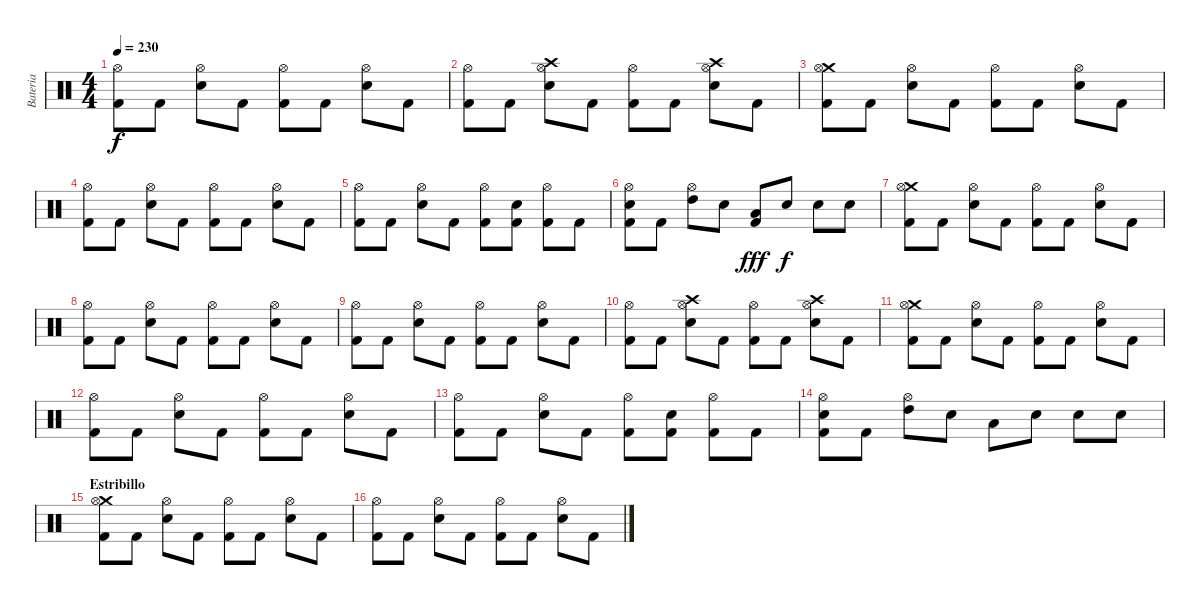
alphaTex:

\track ("Bateria" "Bateria") {instrument percussion}
\staff {score}
\articulation defaults
\ts (4 4)
\tempo 230
\clef neutral
\ks c
("Hi-Hat (open)" "Kick (hit) 2").8{dy f} "Kick (hit) 2".8 ("Hi-Hat (open)" "Snare (hit) 2").8 "Kick (hit) 2".8 ("Hi-Hat (open)" "Kick (hit) 2").8 "Kick (hit) 2".8 ("Hi-Hat (open)" "Snare (hit) 2").8 "Kick (hit) 2".8 |
("Hi-Hat (open)" "Kick (hit) 2").8 "Kick (hit) 2".8 ("Hi-Hat (open)" "Crash high (hit)" "Snare (hit) 2").8 "Kick (hit) 2".8 ("Hi-Hat (open)" "Kick (hit) 2").8 "Kick (hit) 2".8 ("Hi-Hat (open)" "Crash high (hit)" "Snare (hit) 2").8 "Kick (hit) 2".8 |
("Crash medium (hit)" "Hi-Hat (open)" "Kick (hit) 2").8 "Kick (hit) 2".8 ("Hi-Hat (open)" "Snare (hit) 2").8 "Kick (hit) 2".8 ("Hi-Hat (open)" "Kick (hit) 2").8 "Kick (hit) 2".8 ("Hi-Hat (open)" "Snare (hit) 2").8 "Kick (hit) 2".8 |
("Hi-Hat (open)" "Kick (hit) 2").8 "Kick (hit) 2".8 ("Hi-Hat (open)" "Snare (hit) 2").8 "Kick (hit) 2".8 ("Hi-Hat (open)" "Kick (hit) 2").8 "Kick (hit) 2".8 ("Hi-Hat (open)" "Snare (hit) 2").8 "Kick (hit) 2".8 |
("Hi-Hat (open)" "Kick (hit) 2").8 "Kick (hit) 2".8 ("Hi-Hat (open)" "Snare (hit) 2").8 "Kick (hit) 2".8 ("Hi-Hat (open)" "Kick (hit) 2").8 ("Snare (hit) 2" "Kick (hit) 2").8 ("Hi-Hat (open)" "Kick (hit) 2").8 "Kick (hit) 2".8 |
("Snare (hit) 2" "Hi-Hat (open)" "Kick (hit) 2").8 "Kick (hit) 2".8 ("Hi-Hat (open)" "High Tom (hit)").8 "Snare (hit) 2".8 ("Kick (hit) 2" "Low Tom (hit)").8{dy fff} "Snare (hit) 2".8{dy f} "Snare (hit) 2".8 "Snare (hit) 2".8 |
("Crash medium (hit)" "Hi-Hat (open)" "Kick (hit) 2").8 "Kick (hit) 2".8 ("Hi-Hat (open)" "Snare (hit) 2").8 "Kick (hit) 2".8 ("Hi-Hat (open)" "Kick (hit) 2").8 "Kick (hit) 2".8 ("Hi-Hat (open)" "Snare (hit) 2").8 "Kick (hit) 2".8 |
("Hi-Hat (open)" "Kick (hit) 2").8 "Kick (hit) 2".8 ("Hi-Hat (open)" "Snare (hit) 2").8 "Kick (hit) 2".8 ("Hi-Hat (open)" "Kick (hit) 2").8 "Kick (hit) 2".8 ("Hi-Hat (open)" "Snare (hit) 2").8 "Kick (hit) 2".8 |
("Hi-Hat (open)" "Kick (hit) 2").8 "Kick (hit) 2".8 ("Hi-Hat (open)" "Snare (hit) 2").8 "Kick (hit) 2".8 ("Hi-Hat (open)" "Kick (hit) 2").8 "Kick (hit) 2".8 ("Hi-Hat (open)" "Snare (hit) 2").8 "Kick (hit) 2".8 |
("Hi-Hat (open)" "Kick (hit) 2").8 "Kick (hit) 2".8 ("Hi-Hat (open)" "Crash high (hit)" "Snare (hit) 2").8 "Kick (hit) 2".8 ("Hi-Hat (open)" "Kick (hit) 2").8 "Kick (hit) 2".8 ("Hi-Hat (open)" "Crash high (hit)" "Snare (hit) 2").8 "Kick (hit) 2".8 |
("Crash medium (hit)" "Hi-Hat (open)" "Kick (hit) 2").8 "Kick (hit) 2".8 ("Hi-Hat (open)" "Snare (hit) 2").8 "Kick (hit) 2".8 ("Hi-Hat (open)" "Kick (hit) 2").8 "Kick (hit) 2".8 ("Hi-Hat (open)" "Snare (hit) 2").8 "Kick (hit) 2".8 |
("Hi-Hat (open)" "Kick (hit) 2").8 "Kick (hit) 2".8 ("Hi-Hat (open)" "Snare (hit) 2").8 "Kick (hit) 2".8 ("Hi-Hat (open)" "Kick (hit) 2").8 "Kick (hit) 2".8 ("Hi-Hat (open)" "Snare (hit) 2").8 "Kick (hit) 2".8 |
("Hi-Hat (open)" "Kick (hit) 2").8 "Kick (hit) 2".8 ("Hi-Hat (open)" "Snare (hit) 2").8 "Kick (hit) 2".8 ("Hi-Hat (open)" "Kick (hit) 2").8 ("Snare (hit) 2" "Kick (hit) 2").8 ("Hi-Hat (open)" "Kick (hit) 2").8 "Kick (hit) 2".8 |
("Snare (hit) 2" "Hi-Hat (open)" "Kick (hit) 2").8 "Kick (hit) 2".8 ("Hi-Hat (open)" "High Tom (hit)").8 "Snare (hit) 2".8 "Low Tom (hit)".8 "Snare (hit) 2".8 "Snare (hit) 2".8 "Snare (hit) 2".8 |
\section ("" "Estribillo")
("Crash medium (hit)" "Hi-Hat (open)" "Kick (hit) 2").8 "Kick (hit) 2".8 ("Hi-Hat (open)" "Snare (hit) 2").8 "Kick (hit) 2".8 ("Hi-Hat (open)" "Kick (hit) 2").8 "Kick (hit) 2".8 ("Hi-Hat (open)" "Snare (hit) 2").8 "Kick (hit) 2".8 |
("Hi-Hat (open)" "Kick (hit) 2").8 "Kick (hit) 2".8 ("Hi-Hat (open)" "Snare (hit) 2").8 "Kick (hit) 2".8 ("Hi-Hat (open)" "Kick (hit) 2").8 "Kick (hit) 2".8 ("Hi-Hat (open)" "Snare (hit) 2").8 "Kick (hit) 2".8
